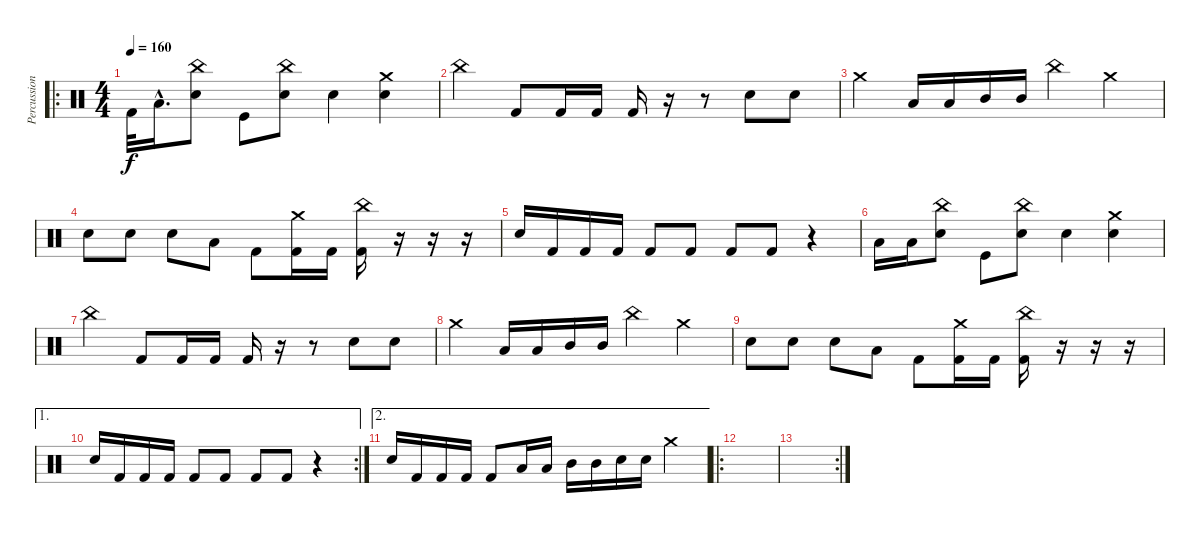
\track ("Percussion" "Percussion") {instrument percussion}
\staff {score}
\articulation defaults
\ro
\ts (4 4)
\tempo 160
\clef neutral
\ks c "Kick (hit) 2".32{dy f} "Low Tom (hit)"{hac}.16{d}
("China (hit)" "Electric Snare (hit)").8 "Kick (hit)".8 ("China (hit)" "Electric Snare (hit)").8 "Electric Snare (hit)".4 ("Crash medium (hit)" "Electric Snare (hit)").4 |
"China (hit)".4 "Kick (hit) 2".8 "Kick (hit) 2".16 "Kick (hit) 2".16 "Kick (hit) 2".16 r.16 r.8 "Electric Snare (hit)".8 "Electric Snare (hit)".8 |
"Crash medium (hit)".4 "Low Tom (hit)".16 "Low Tom (hit)".16 "Mid Tom (hit)".16 "Mid Tom (hit)".16 "China (hit)".4 "Crash medium (hit)".4 |
"Electric Snare (hit)".8 "Electric Snare (hit)".8 "Electric Snare (hit)".8 "Low Floor Tom (hit)".8 "Kick (hit) 2".8 ("Crash medium (hit)" "Kick (hit) 2").16 "Kick (hit) 2".16 ("China (hit)" "Kick (hit) 2").16 r.16 r.16 r.16 |
"Electric Snare (hit)".16 "Kick (hit) 2".16 "Kick (hit) 2".16 "Kick (hit) 2".16 "Kick (hit) 2".8 "Kick (hit) 2".8 "Kick (hit) 2".8 "Kick (hit) 2".8 r.4 |
"Low Tom (hit)".16 "Low Tom (hit)".16 ("China (hit)" "Electric Snare (hit)").8 "Kick (hit)".8 ("China (hit)" "Electric Snare (hit)").8 "Electric Snare (hit)".4 ("Crash medium (hit)" "Electric Snare (hit)").4 |
"China (hit)".4 "Kick (hit) 2".8 "Kick (hit) 2".16 "Kick (hit) 2".16 "Kick (hit) 2".16 r.16 r.8 "Electric Snare (hit)".8 "Electric Snare (hit)".8 |
"Crash medium (hit)".4 "Low Tom (hit)".16 "Low Tom (hit)".16 "Mid Tom (hit)".16 "Mid Tom (hit)".16 "China (hit)".4 "Crash medium (hit)".4 |
"Electric Snare (hit)".8 "Electric Snare (hit)".8 "Electric Snare (hit)".8 "Low Floor Tom (hit)".8 "Kick (hit) 2".8 ("Crash medium (hit)" "Kick (hit) 2").16 "Kick (hit) 2".16 ("China (hit)" "Kick (hit) 2").16 r.16 r.16 r.16 |
\ae 1
\rc 2 "Electric Snare (hit)".16 "Kick (hit) 2".16 "Kick (hit) 2".16 "Kick (hit) 2".16 "Kick (hit) 2".8 "Kick (hit) 2".8 "Kick (hit) 2".8 "Kick (hit) 2".8
r.4 |
\ae 2 "Electric Snare (hit)".16 "Kick (hit) 2".16 "Kick (hit) 2".16 "Kick (hit) 2".16 "Kick (hit) 2".8 "Low Tom (hit)".16 "Low Tom (hit)".16 "Mid Tom (hit)".16 "Mid Tom (hit)".16 "Electric Snare (hit)".16 "Electric Snare (hit)".16 "Crash medium (hit)".4
|
\ro
|
\rc 2
